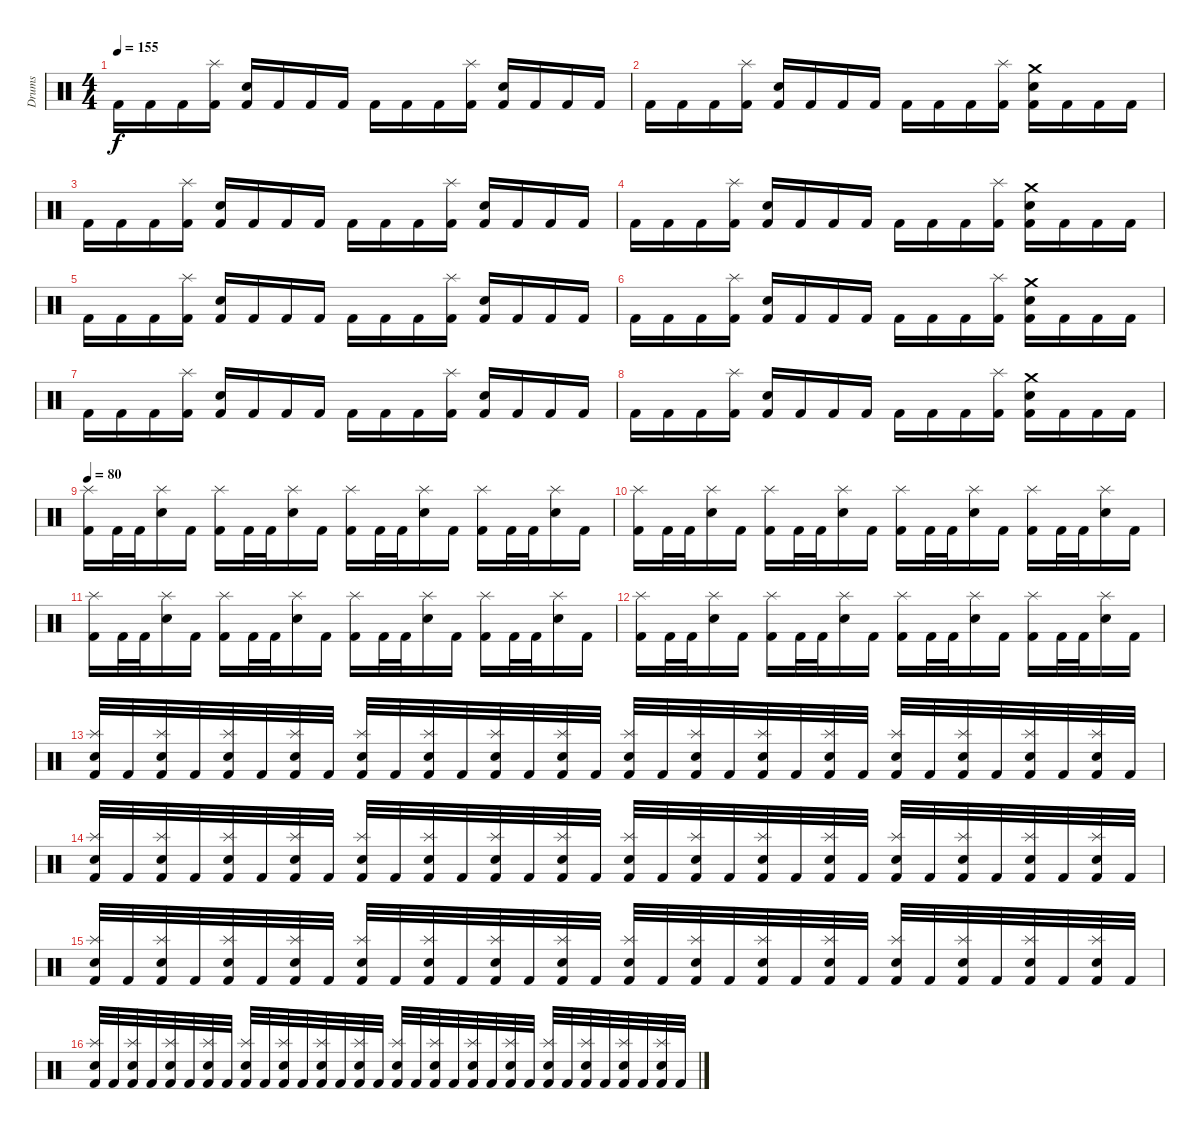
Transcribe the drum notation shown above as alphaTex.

\track ("Drums" "Drums") {instrument percussion}
\staff {score}
\articulation defaults
\ts (4 4)
\tempo 155
\clef neutral
\ks c "Kick (hit) 2".16{dy f} "Kick (hit) 2".16 "Kick (hit) 2".16
("Splash (hit)" "Kick (hit) 2").16 ("Snare (hit) 2" "Kick (hit) 2").16 "Kick (hit) 2".16 "Kick (hit) 2".16 "Kick (hit) 2".16 "Kick (hit) 2".16 "Kick (hit) 2".16 "Kick (hit) 2".16 ("Splash (hit)" "Kick (hit) 2").16 ("Snare (hit) 2" "Kick (hit) 2").16 "Kick (hit) 2".16 "Kick (hit) 2".16 "Kick (hit) 2".16 |
"Kick (hit) 2".16 "Kick (hit) 2".16 "Kick (hit) 2".16 ("Splash (hit)" "Kick (hit) 2").16 ("Snare (hit) 2" "Kick (hit) 2").16 "Kick (hit) 2".16 "Kick (hit) 2".16 "Kick (hit) 2".16 "Kick (hit) 2".16 "Kick (hit) 2".16 "Kick (hit) 2".16 ("Splash (hit)" "Kick (hit) 2").16 ("Crash medium (hit)" "Snare (hit) 2" "Kick (hit) 2").16 "Kick (hit) 2".16 "Kick (hit) 2".16 "Kick (hit) 2".16 |
"Kick (hit) 2".16 "Kick (hit) 2".16 "Kick (hit) 2".16 ("Splash (hit)" "Kick (hit) 2").16 ("Snare (hit) 2" "Kick (hit) 2").16 "Kick (hit) 2".16 "Kick (hit) 2".16 "Kick (hit) 2".16 "Kick (hit) 2".16 "Kick (hit) 2".16 "Kick (hit) 2".16 ("Splash (hit)" "Kick (hit) 2").16 ("Snare (hit) 2" "Kick (hit) 2").16 "Kick (hit) 2".16 "Kick (hit) 2".16 "Kick (hit) 2".16 |
"Kick (hit) 2".16 "Kick (hit) 2".16 "Kick (hit) 2".16 ("Splash (hit)" "Kick (hit) 2").16 ("Snare (hit) 2" "Kick (hit) 2").16 "Kick (hit) 2".16 "Kick (hit) 2".16 "Kick (hit) 2".16 "Kick (hit) 2".16 "Kick (hit) 2".16 "Kick (hit) 2".16 ("Splash (hit)" "Kick (hit) 2").16 ("Crash medium (hit)" "Snare (hit) 2" "Kick (hit) 2").16 "Kick (hit) 2".16 "Kick (hit) 2".16 "Kick (hit) 2".16 |
"Kick (hit) 2".16 "Kick (hit) 2".16 "Kick (hit) 2".16 ("Splash (hit)" "Kick (hit) 2").16 ("Snare (hit) 2" "Kick (hit) 2").16 "Kick (hit) 2".16 "Kick (hit) 2".16 "Kick (hit) 2".16 "Kick (hit) 2".16 "Kick (hit) 2".16 "Kick (hit) 2".16 ("Splash (hit)" "Kick (hit) 2").16 ("Snare (hit) 2" "Kick (hit) 2").16 "Kick (hit) 2".16 "Kick (hit) 2".16 "Kick (hit) 2".16 |
"Kick (hit) 2".16 "Kick (hit) 2".16 "Kick (hit) 2".16 ("Splash (hit)" "Kick (hit) 2").16 ("Snare (hit) 2" "Kick (hit) 2").16 "Kick (hit) 2".16 "Kick (hit) 2".16 "Kick (hit) 2".16 "Kick (hit) 2".16 "Kick (hit) 2".16 "Kick (hit) 2".16 ("Splash (hit)" "Kick (hit) 2").16 ("Crash medium (hit)" "Snare (hit) 2" "Kick (hit) 2").16 "Kick (hit) 2".16 "Kick (hit) 2".16 "Kick (hit) 2".16 |
"Kick (hit) 2".16 "Kick (hit) 2".16 "Kick (hit) 2".16 ("Splash (hit)" "Kick (hit) 2").16 ("Snare (hit) 2" "Kick (hit) 2").16 "Kick (hit) 2".16 "Kick (hit) 2".16 "Kick (hit) 2".16 "Kick (hit) 2".16 "Kick (hit) 2".16 "Kick (hit) 2".16 ("Splash (hit)" "Kick (hit) 2").16 ("Snare (hit) 2" "Kick (hit) 2").16 "Kick (hit) 2".16 "Kick (hit) 2".16 "Kick (hit) 2".16 |
"Kick (hit) 2".16 "Kick (hit) 2".16 "Kick (hit) 2".16 ("Splash (hit)" "Kick (hit) 2").16 ("Snare (hit) 2" "Kick (hit) 2").16 "Kick (hit) 2".16 "Kick (hit) 2".16 "Kick (hit) 2".16 "Kick (hit) 2".16 "Kick (hit) 2".16 "Kick (hit) 2".16 ("Splash (hit)" "Kick (hit) 2").16 ("Crash medium (hit)" "Snare (hit) 2" "Kick (hit) 2").16 "Kick (hit) 2".16 "Kick (hit) 2".16 "Kick (hit) 2".16 |
\tempo 80
("Splash (hit)" "Kick (hit) 2").16 "Kick (hit) 2".32 "Kick (hit) 2".32 ("Splash (hit)" "Snare (hit) 2").16 "Kick (hit) 2".16 ("Splash (hit)" "Kick (hit) 2").16 "Kick (hit) 2".32 "Kick (hit) 2".32 ("Splash (hit)" "Snare (hit) 2").16 "Kick (hit) 2".16 ("Splash (hit)" "Kick (hit) 2").16 "Kick (hit) 2".32 "Kick (hit) 2".32 ("Splash (hit)" "Snare (hit) 2").16 "Kick (hit) 2".16 ("Splash (hit)" "Kick (hit) 2").16 "Kick (hit) 2".32 "Kick (hit) 2".32 ("Splash (hit)" "Snare (hit) 2").16 "Kick (hit) 2".16 |
("Splash (hit)" "Kick (hit) 2").16 "Kick (hit) 2".32 "Kick (hit) 2".32 ("Splash (hit)" "Snare (hit) 2").16 "Kick (hit) 2".16 ("Splash (hit)" "Kick (hit) 2").16 "Kick (hit) 2".32 "Kick (hit) 2".32 ("Splash (hit)" "Snare (hit) 2").16 "Kick (hit) 2".16 ("Splash (hit)" "Kick (hit) 2").16 "Kick (hit) 2".32 "Kick (hit) 2".32 ("Splash (hit)" "Snare (hit) 2").16 "Kick (hit) 2".16 ("Splash (hit)" "Kick (hit) 2").16 "Kick (hit) 2".32 "Kick (hit) 2".32 ("Splash (hit)" "Snare (hit) 2").16 "Kick (hit) 2".16 |
("Splash (hit)" "Kick (hit) 2").16 "Kick (hit) 2".32 "Kick (hit) 2".32 ("Splash (hit)" "Snare (hit) 2").16 "Kick (hit) 2".16 ("Splash (hit)" "Kick (hit) 2").16 "Kick (hit) 2".32 "Kick (hit) 2".32 ("Splash (hit)" "Snare (hit) 2").16 "Kick (hit) 2".16 ("Splash (hit)" "Kick (hit) 2").16 "Kick (hit) 2".32 "Kick (hit) 2".32 ("Splash (hit)" "Snare (hit) 2").16 "Kick (hit) 2".16 ("Splash (hit)" "Kick (hit) 2").16 "Kick (hit) 2".32 "Kick (hit) 2".32 ("Splash (hit)" "Snare (hit) 2").16 "Kick (hit) 2".16 |
("Splash (hit)" "Kick (hit) 2").16 "Kick (hit) 2".32 "Kick (hit) 2".32 ("Splash (hit)" "Snare (hit) 2").16 "Kick (hit) 2".16 ("Splash (hit)" "Kick (hit) 2").16 "Kick (hit) 2".32 "Kick (hit) 2".32 ("Splash (hit)" "Snare (hit) 2").16 "Kick (hit) 2".16 ("Splash (hit)" "Kick (hit) 2").16 "Kick (hit) 2".32 "Kick (hit) 2".32 ("Splash (hit)" "Snare (hit) 2").16 "Kick (hit) 2".16 ("Splash (hit)" "Kick (hit) 2").16 "Kick (hit) 2".32 "Kick (hit) 2".32 ("Splash (hit)" "Snare (hit) 2").16 "Kick (hit) 2".16 |
("Splash (hit)" "Snare (hit) 2" "Kick (hit) 2").32 "Kick (hit) 2".32 ("Splash (hit)" "Snare (hit) 2" "Kick (hit) 2").32 "Kick (hit) 2".32 ("Splash (hit)" "Snare (hit) 2" "Kick (hit) 2").32 "Kick (hit) 2".32 ("Splash (hit)" "Snare (hit) 2" "Kick (hit) 2").32 "Kick (hit) 2".32 ("Splash (hit)" "Snare (hit) 2" "Kick (hit) 2").32 "Kick (hit) 2".32 ("Splash (hit)" "Snare (hit) 2" "Kick (hit) 2").32 "Kick (hit) 2".32 ("Splash (hit)" "Snare (hit) 2" "Kick (hit) 2").32 "Kick (hit) 2".32 ("Splash (hit)" "Snare (hit) 2" "Kick (hit) 2").32 "Kick (hit) 2".32 ("Splash (hit)" "Snare (hit) 2" "Kick (hit) 2").32 "Kick (hit) 2".32 ("Splash (hit)" "Snare (hit) 2" "Kick (hit) 2").32 "Kick (hit) 2".32 ("Splash (hit)" "Snare (hit) 2" "Kick (hit) 2").32 "Kick (hit) 2".32 ("Splash (hit)" "Snare (hit) 2" "Kick (hit) 2").32 "Kick (hit) 2".32 ("Splash (hit)" "Snare (hit) 2" "Kick (hit) 2").32 "Kick (hit) 2".32 ("Splash (hit)" "Snare (hit) 2" "Kick (hit) 2").32 "Kick (hit) 2".32 ("Splash (hit)" "Snare (hit) 2" "Kick (hit) 2").32 "Kick (hit) 2".32 ("Splash (hit)" "Snare (hit) 2" "Kick (hit) 2").32 "Kick (hit) 2".32 |
("Splash (hit)" "Snare (hit) 2" "Kick (hit) 2").32 "Kick (hit) 2".32 ("Splash (hit)" "Snare (hit) 2" "Kick (hit) 2").32 "Kick (hit) 2".32 ("Splash (hit)" "Snare (hit) 2" "Kick (hit) 2").32 "Kick (hit) 2".32 ("Splash (hit)" "Snare (hit) 2" "Kick (hit) 2").32 "Kick (hit) 2".32 ("Splash (hit)" "Snare (hit) 2" "Kick (hit) 2").32 "Kick (hit) 2".32 ("Splash (hit)" "Snare (hit) 2" "Kick (hit) 2").32 "Kick (hit) 2".32 ("Splash (hit)" "Snare (hit) 2" "Kick (hit) 2").32 "Kick (hit) 2".32 ("Splash (hit)" "Snare (hit) 2" "Kick (hit) 2").32 "Kick (hit) 2".32 ("Splash (hit)" "Snare (hit) 2" "Kick (hit) 2").32 "Kick (hit) 2".32 ("Splash (hit)" "Snare (hit) 2" "Kick (hit) 2").32 "Kick (hit) 2".32 ("Splash (hit)" "Snare (hit) 2" "Kick (hit) 2").32 "Kick (hit) 2".32 ("Splash (hit)" "Snare (hit) 2" "Kick (hit) 2").32 "Kick (hit) 2".32 ("Splash (hit)" "Snare (hit) 2" "Kick (hit) 2").32 "Kick (hit) 2".32 ("Splash (hit)" "Snare (hit) 2" "Kick (hit) 2").32 "Kick (hit) 2".32 ("Splash (hit)" "Snare (hit) 2" "Kick (hit) 2").32 "Kick (hit) 2".32 ("Splash (hit)" "Snare (hit) 2" "Kick (hit) 2").32 "Kick (hit) 2".32 |
("Splash (hit)" "Snare (hit) 2" "Kick (hit) 2").32 "Kick (hit) 2".32 ("Splash (hit)" "Snare (hit) 2" "Kick (hit) 2").32 "Kick (hit) 2".32 ("Splash (hit)" "Snare (hit) 2" "Kick (hit) 2").32 "Kick (hit) 2".32 ("Splash (hit)" "Snare (hit) 2" "Kick (hit) 2").32 "Kick (hit) 2".32 ("Splash (hit)" "Snare (hit) 2" "Kick (hit) 2").32 "Kick (hit) 2".32 ("Splash (hit)" "Snare (hit) 2" "Kick (hit) 2").32 "Kick (hit) 2".32 ("Splash (hit)" "Snare (hit) 2" "Kick (hit) 2").32 "Kick (hit) 2".32 ("Splash (hit)" "Snare (hit) 2" "Kick (hit) 2").32 "Kick (hit) 2".32 ("Splash (hit)" "Snare (hit) 2" "Kick (hit) 2").32 "Kick (hit) 2".32 ("Splash (hit)" "Snare (hit) 2" "Kick (hit) 2").32 "Kick (hit) 2".32 ("Splash (hit)" "Snare (hit) 2" "Kick (hit) 2").32 "Kick (hit) 2".32 ("Splash (hit)" "Snare (hit) 2" "Kick (hit) 2").32 "Kick (hit) 2".32 ("Splash (hit)" "Snare (hit) 2" "Kick (hit) 2").32 "Kick (hit) 2".32 ("Splash (hit)" "Snare (hit) 2" "Kick (hit) 2").32 "Kick (hit) 2".32 ("Splash (hit)" "Snare (hit) 2" "Kick (hit) 2").32 "Kick (hit) 2".32 ("Splash (hit)" "Snare (hit) 2" "Kick (hit) 2").32 "Kick (hit) 2".32 |
("Splash (hit)" "Snare (hit) 2" "Kick (hit) 2").32 "Kick (hit) 2".32 ("Splash (hit)" "Snare (hit) 2" "Kick (hit) 2").32 "Kick (hit) 2".32 ("Splash (hit)" "Snare (hit) 2" "Kick (hit) 2").32 "Kick (hit) 2".32 ("Splash (hit)" "Snare (hit) 2" "Kick (hit) 2").32 "Kick (hit) 2".32 ("Splash (hit)" "Snare (hit) 2" "Kick (hit) 2").32 "Kick (hit) 2".32 ("Splash (hit)" "Snare (hit) 2" "Kick (hit) 2").32 "Kick (hit) 2".32 ("Splash (hit)" "Snare (hit) 2" "Kick (hit) 2").32 "Kick (hit) 2".32 ("Splash (hit)" "Snare (hit) 2" "Kick (hit) 2").32 "Kick (hit) 2".32 ("Splash (hit)" "Snare (hit) 2" "Kick (hit) 2").32 "Kick (hit) 2".32 ("Splash (hit)" "Snare (hit) 2" "Kick (hit) 2").32 "Kick (hit) 2".32 ("Splash (hit)" "Snare (hit) 2" "Kick (hit) 2").32 "Kick (hit) 2".32 ("Splash (hit)" "Snare (hit) 2" "Kick (hit) 2").32 "Kick (hit) 2".32 ("Splash (hit)" "Snare (hit) 2" "Kick (hit) 2").32 "Kick (hit) 2".32 ("Splash (hit)" "Snare (hit) 2" "Kick (hit) 2").32 "Kick (hit) 2".32 ("Splash (hit)" "Snare (hit) 2" "Kick (hit) 2").32 "Kick (hit) 2".32 ("Splash (hit)" "Snare (hit) 2" "Kick (hit) 2").32 "Kick (hit) 2".32
